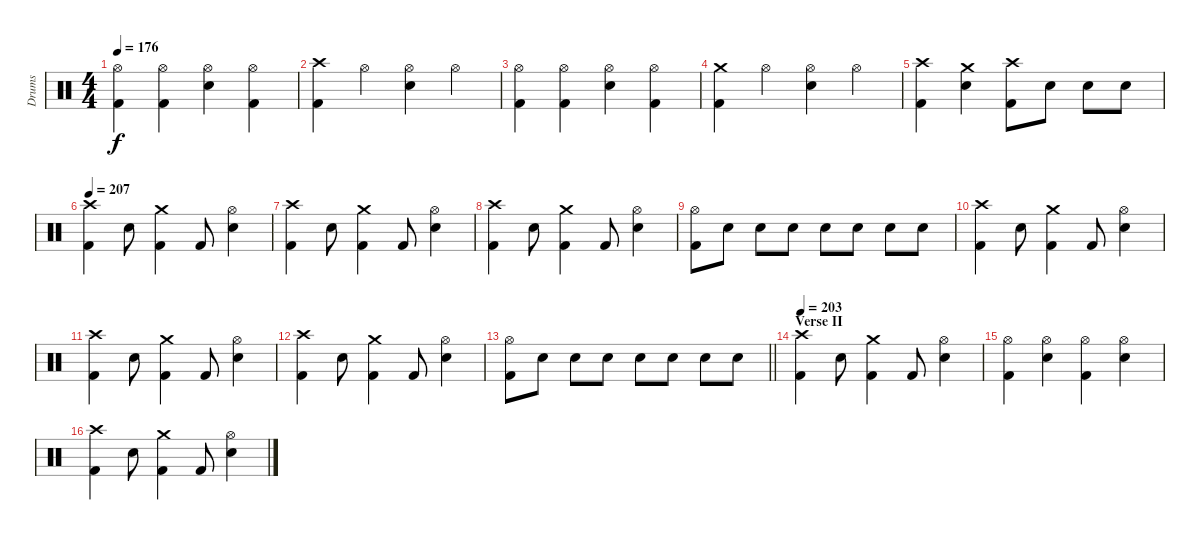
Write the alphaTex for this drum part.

\track ("Drums" "Drums") {instrument percussion}
\staff {score}
\articulation defaults
\ts (4 4)
\tempo 176
\clef neutral
\ks c
("Hi-Hat (open)" "Kick (hit) 2").4{dy f} ("Hi-Hat (open)" "Kick (hit) 2").4 ("Hi-Hat (open)" "Snare (hit) 2").4 ("Hi-Hat (open)" "Kick (hit) 2").4 |
("Crash high (hit)" "Kick (hit) 2").4 "Hi-Hat (open)".4 ("Hi-Hat (open)" "Snare (hit) 2").4 "Hi-Hat (open)".4 |
("Hi-Hat (open)" "Kick (hit) 2").4 ("Hi-Hat (open)" "Kick (hit) 2").4 ("Hi-Hat (open)" "Snare (hit) 2").4 ("Hi-Hat (open)" "Kick (hit) 2").4 |
("Crash medium (hit)" "Kick (hit) 2").4 "Hi-Hat (open)".4 ("Hi-Hat (open)" "Snare (hit) 2").4 "Hi-Hat (open)".4 |
("Crash high (hit)" "Kick (hit) 2").4 ("Crash medium (hit)" "Snare (hit) 2").4 ("Crash high (hit)" "Kick (hit) 2").8 "Snare (hit) 2".8 "Snare (hit) 2".8 "Snare (hit) 2".8 |
\tempo 207
("Crash high (hit)" "Kick (hit) 2").4 "Snare (hit) 2".8 ("Crash medium (hit)" "Kick (hit) 2").4 "Kick (hit) 2".8 ("Hi-Hat (open)" "Snare (hit) 2").4 |
("Crash high (hit)" "Kick (hit) 2").4 "Snare (hit) 2".8 ("Crash medium (hit)" "Kick (hit) 2").4 "Kick (hit) 2".8 ("Hi-Hat (open)" "Snare (hit) 2").4 |
("Crash high (hit)" "Kick (hit) 2").4 "Snare (hit) 2".8 ("Crash medium (hit)" "Kick (hit) 2").4 "Kick (hit) 2".8 ("Hi-Hat (open)" "Snare (hit) 2").4 |
("Hi-Hat (open)" "Kick (hit) 2").8 "Snare (hit) 2".8 "Snare (hit) 2".8 "Snare (hit) 2".8 "Snare (hit) 2".8 "Snare (hit) 2".8 "Snare (hit) 2".8 "Snare (hit) 2".8 |
("Crash high (hit)" "Kick (hit) 2").4 "Snare (hit) 2".8 ("Crash medium (hit)" "Kick (hit) 2").4 "Kick (hit) 2".8 ("Hi-Hat (open)" "Snare (hit) 2").4 |
("Crash high (hit)" "Kick (hit) 2").4 "Snare (hit) 2".8 ("Crash medium (hit)" "Kick (hit) 2").4 "Kick (hit) 2".8 ("Hi-Hat (open)" "Snare (hit) 2").4 |
("Crash high (hit)" "Kick (hit) 2").4 "Snare (hit) 2".8 ("Crash medium (hit)" "Kick (hit) 2").4 "Kick (hit) 2".8 ("Hi-Hat (open)" "Snare (hit) 2").4 |
\barLineRight lightlight
("Hi-Hat (open)" "Kick (hit) 2").8 "Snare (hit) 2".8 "Snare (hit) 2".8 "Snare (hit) 2".8 "Snare (hit) 2".8 "Snare (hit) 2".8 "Snare (hit) 2".8 "Snare (hit) 2".8 |
\section ("" "Verse II")
\tempo 203
("Crash high (hit)" "Kick (hit) 2").4 "Snare (hit) 2".8 ("Crash medium (hit)" "Kick (hit) 2").4 "Kick (hit) 2".8 ("Hi-Hat (open)" "Snare (hit) 2").4 |
("Hi-Hat (open)" "Kick (hit) 2").4 ("Hi-Hat (open)" "Snare (hit) 2").4 ("Hi-Hat (open)" "Kick (hit) 2").4 ("Hi-Hat (open)" "Snare (hit) 2").4 |
("Crash high (hit)" "Kick (hit) 2").4 "Snare (hit) 2".8 ("Crash medium (hit)" "Kick (hit) 2").4 "Kick (hit) 2".8 ("Hi-Hat (open)" "Snare (hit) 2").4
